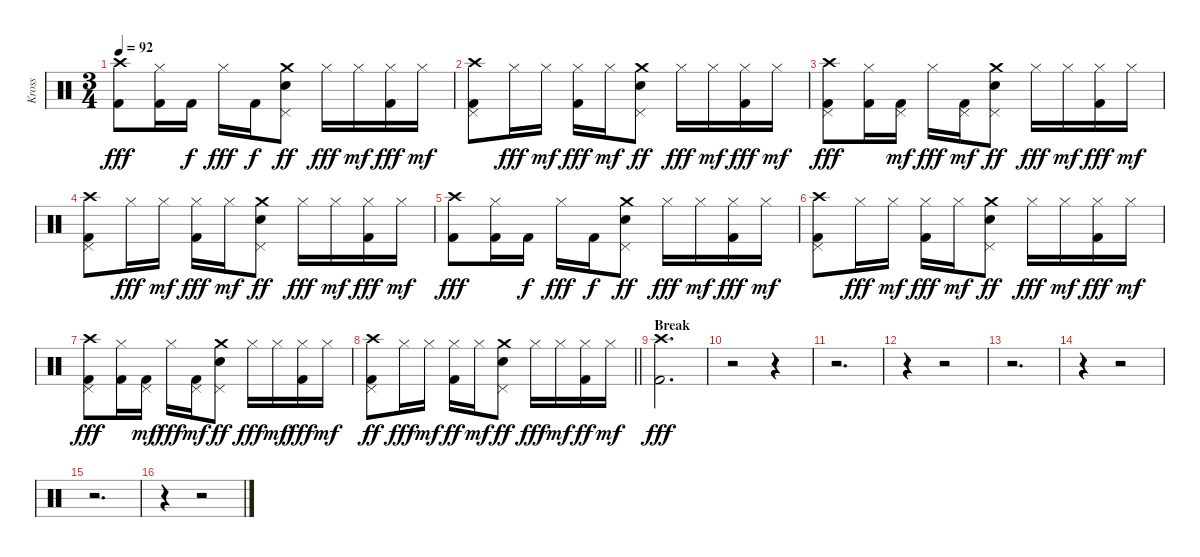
\track ("Kross" "Kross") {instrument percussion}
\staff {score}
\articulation defaults
\ts (3 4)
\tempo 92
\clef neutral
\ks c
("Crash high (hit)" "Kick (hit) 2").8{dy fff} ("Hi-Hat (closed)" "Kick (hit) 2").16 "Kick (hit) 2".16{dy f} "Hi-Hat (closed)".16{dy fff} "Kick (hit) 2".16{dy f} ("Crash medium (hit)" "Pedal Hi-Hat (hit)" "Snare (hit) 2").8{dy ff} "Hi-Hat (closed)".16{dy fff} "Hi-Hat (closed)".16{dy mf} ("Hi-Hat (closed)" "Kick (hit) 2").16{dy fff} "Hi-Hat (closed)".16{dy mf} |
("Crash high (hit)" "Pedal Hi-Hat (hit)" "Kick (hit) 2").8 "Hi-Hat (closed)".16{dy fff} "Hi-Hat (closed)".16{dy mf} ("Hi-Hat (closed)" "Kick (hit) 2").16{dy fff} "Hi-Hat (closed)".16{dy mf} ("Crash medium (hit)" "Pedal Hi-Hat (hit)" "Snare (hit) 2").8{dy ff} "Hi-Hat (closed)".16{dy fff} "Hi-Hat (closed)".16{dy mf} ("Hi-Hat (closed)" "Kick (hit) 2").16{dy fff} "Hi-Hat (closed)".16{dy mf} |
("Crash high (hit)" "Pedal Hi-Hat (hit)" "Kick (hit) 2").8{dy fff} ("Hi-Hat (closed)" "Kick (hit) 2").16 ("Pedal Hi-Hat (hit)" "Kick (hit) 2").16{dy mf} "Hi-Hat (closed)".16{dy fff} ("Pedal Hi-Hat (hit)" "Kick (hit) 2").16{dy mf} ("Crash medium (hit)" "Pedal Hi-Hat (hit)" "Snare (hit) 2").8{dy ff} "Hi-Hat (closed)".16{dy fff} "Hi-Hat (closed)".16{dy mf} ("Hi-Hat (closed)" "Kick (hit) 2").16{dy fff} "Hi-Hat (closed)".16{dy mf} |
("Crash high (hit)" "Pedal Hi-Hat (hit)" "Kick (hit) 2").8 "Hi-Hat (closed)".16{dy fff} "Hi-Hat (closed)".16{dy mf} ("Hi-Hat (closed)" "Kick (hit) 2").16{dy fff} "Hi-Hat (closed)".16{dy mf} ("Crash medium (hit)" "Pedal Hi-Hat (hit)" "Snare (hit) 2").8{dy ff} "Hi-Hat (closed)".16{dy fff} "Hi-Hat (closed)".16{dy mf} ("Hi-Hat (closed)" "Kick (hit) 2").16{dy fff} "Hi-Hat (closed)".16{dy mf} |
("Crash high (hit)" "Kick (hit) 2").8{dy fff} ("Hi-Hat (closed)" "Kick (hit) 2").16 "Kick (hit) 2".16{dy f} "Hi-Hat (closed)".16{dy fff} "Kick (hit) 2".16{dy f} ("Crash medium (hit)" "Pedal Hi-Hat (hit)" "Snare (hit) 2").8{dy ff} "Hi-Hat (closed)".16{dy fff} "Hi-Hat (closed)".16{dy mf} ("Hi-Hat (closed)" "Kick (hit) 2").16{dy fff} "Hi-Hat (closed)".16{dy mf} |
("Crash high (hit)" "Pedal Hi-Hat (hit)" "Kick (hit) 2").8 "Hi-Hat (closed)".16{dy fff} "Hi-Hat (closed)".16{dy mf} ("Hi-Hat (closed)" "Kick (hit) 2").16{dy fff} "Hi-Hat (closed)".16{dy mf} ("Crash medium (hit)" "Pedal Hi-Hat (hit)" "Snare (hit) 2").8{dy ff} "Hi-Hat (closed)".16{dy fff} "Hi-Hat (closed)".16{dy mf} ("Hi-Hat (closed)" "Kick (hit) 2").16{dy fff} "Hi-Hat (closed)".16{dy mf} |
("Crash high (hit)" "Pedal Hi-Hat (hit)" "Kick (hit) 2").8{dy fff} ("Hi-Hat (closed)" "Kick (hit) 2").16 ("Pedal Hi-Hat (hit)" "Kick (hit) 2").16{dy mf} "Hi-Hat (closed)".16{dy fff} ("Pedal Hi-Hat (hit)" "Kick (hit) 2").16{dy mf} ("Crash medium (hit)" "Pedal Hi-Hat (hit)" "Snare (hit) 2").8{dy ff} "Hi-Hat (closed)".16{dy fff} "Hi-Hat (closed)".16{dy mf} ("Hi-Hat (closed)" "Kick (hit) 2").16{dy fff} "Hi-Hat (closed)".16{dy mf} |
\barLineRight lightlight
("Crash high (hit)" "Pedal Hi-Hat (hit)" "Kick (hit) 2").8{dy ff} "Hi-Hat (closed)".16{dy fff} "Hi-Hat (closed)".16{dy mf} ("Hi-Hat (closed)" "Kick (hit) 2").16{dy ff} "Hi-Hat (closed)".16{dy mf} ("Crash medium (hit)" "Pedal Hi-Hat (hit)" "Snare (hit) 2").8{dy ff} "Hi-Hat (closed)".16{dy fff} "Hi-Hat (closed)".16{dy mf} ("Hi-Hat (closed)" "Kick (hit) 2").16{dy ff} "Hi-Hat (closed)".16{dy mf} |
\section ("" "Break")
("Crash high (hit)" "Kick (hit) 2").2{d dy fff} |
r.2 r.4 |
r.2{d} |
r.4 r.2 |
r.2{d} |
r.4 r.2 |
r.2{d} |
r.4 r.2
